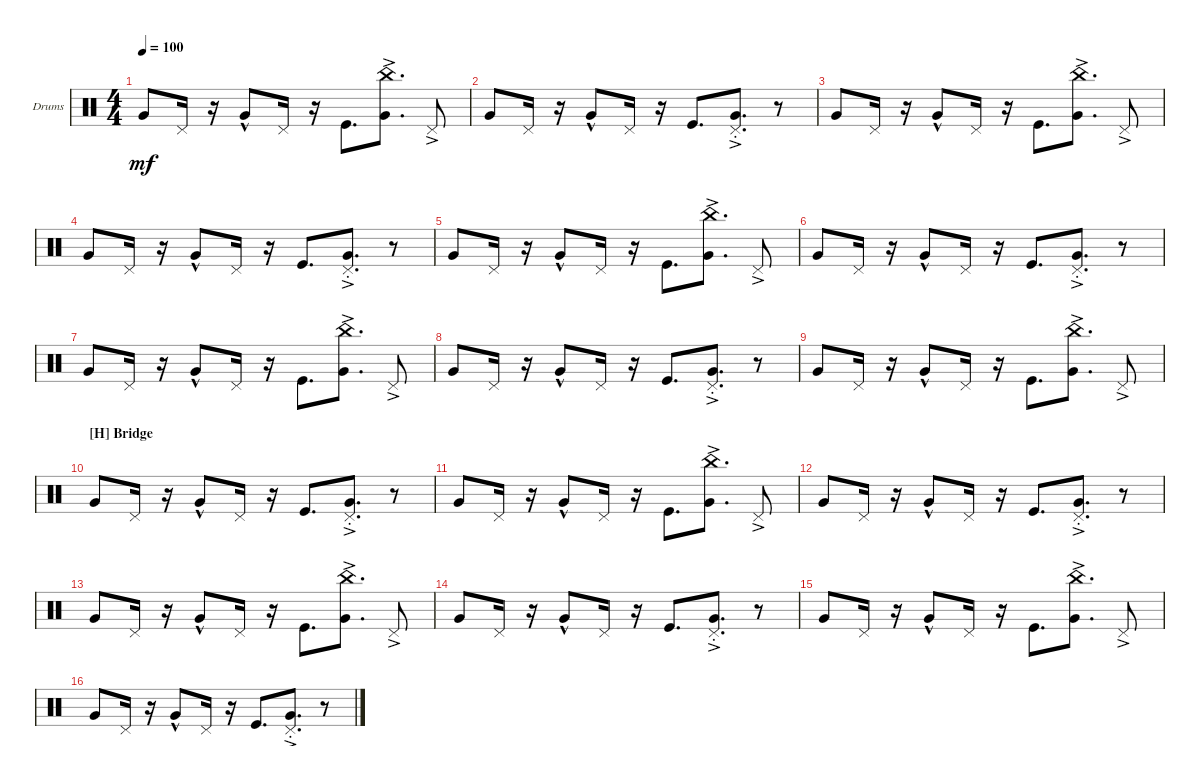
\defaultSystemsLayout 4
\bracketExtendMode groupsimilarinstruments
\firstSystemTrackNameOrientation horizontal
\otherSystemsTrackNameOrientation horizontal
\track ("Drumkit" "Drums") {instrument percussion}
\staff {score}
\articulation defaults
\ts (4 4)
\tempo 100
\clef neutral
\ks c "Very Low Tom (hit)".8{dy mf} "Pedal Hi-Hat (hit)".16
r.16 "Very Low Tom (hit)"{hac}.8 "Pedal Hi-Hat (hit)".16 r.16 "Kick (hit)".8{d} ("China (hit)"{ac} "Very Low Tom (hit)"{ac}).8{d} "Pedal Hi-Hat (hit)"{ac}.8 |
"Very Low Tom (hit)".8 "Pedal Hi-Hat (hit)".16 r.16 "Very Low Tom (hit)"{hac}.8 "Pedal Hi-Hat (hit)".16 r.16 "Kick (hit)".8{d} ("Very Low Tom (hit)"{ac st} "Pedal Hi-Hat (hit)"{ac st}).8{d} r.8 |
"Very Low Tom (hit)".8 "Pedal Hi-Hat (hit)".16 r.16 "Very Low Tom (hit)"{hac}.8 "Pedal Hi-Hat (hit)".16 r.16 "Kick (hit)".8{d} ("China (hit)"{ac} "Very Low Tom (hit)"{ac}).8{d} "Pedal Hi-Hat (hit)"{ac}.8 |
"Very Low Tom (hit)".8 "Pedal Hi-Hat (hit)".16 r.16 "Very Low Tom (hit)"{hac}.8 "Pedal Hi-Hat (hit)".16 r.16 "Kick (hit)".8{d} ("Very Low Tom (hit)"{ac st} "Pedal Hi-Hat (hit)"{ac st}).8{d} r.8 |
"Very Low Tom (hit)".8 "Pedal Hi-Hat (hit)".16 r.16 "Very Low Tom (hit)"{hac}.8 "Pedal Hi-Hat (hit)".16 r.16 "Kick (hit)".8{d} ("China (hit)"{ac} "Very Low Tom (hit)"{ac}).8{d} "Pedal Hi-Hat (hit)"{ac}.8 |
"Very Low Tom (hit)".8 "Pedal Hi-Hat (hit)".16 r.16 "Very Low Tom (hit)"{hac}.8 "Pedal Hi-Hat (hit)".16 r.16 "Kick (hit)".8{d} ("Very Low Tom (hit)"{ac st} "Pedal Hi-Hat (hit)"{ac st}).8{d} r.8 |
"Very Low Tom (hit)".8 "Pedal Hi-Hat (hit)".16 r.16 "Very Low Tom (hit)"{hac}.8 "Pedal Hi-Hat (hit)".16 r.16 "Kick (hit)".8{d} ("China (hit)"{ac} "Very Low Tom (hit)"{ac}).8{d} "Pedal Hi-Hat (hit)"{ac}.8 |
"Very Low Tom (hit)".8 "Pedal Hi-Hat (hit)".16 r.16 "Very Low Tom (hit)"{hac}.8 "Pedal Hi-Hat (hit)".16 r.16 "Kick (hit)".8{d} ("Very Low Tom (hit)"{ac st} "Pedal Hi-Hat (hit)"{ac st}).8{d} r.8 |
"Very Low Tom (hit)".8 "Pedal Hi-Hat (hit)".16 r.16 "Very Low Tom (hit)"{hac}.8 "Pedal Hi-Hat (hit)".16 r.16 "Kick (hit)".8{d} ("China (hit)"{ac} "Very Low Tom (hit)"{ac}).8{d} "Pedal Hi-Hat (hit)"{ac}.8 |
\section ("H" "Bridge")
"Very Low Tom (hit)".8 "Pedal Hi-Hat (hit)".16 r.16 "Very Low Tom (hit)"{hac}.8 "Pedal Hi-Hat (hit)".16 r.16 "Kick (hit)".8{d} ("Very Low Tom (hit)"{ac st} "Pedal Hi-Hat (hit)"{ac st}).8{d} r.8 |
"Very Low Tom (hit)".8 "Pedal Hi-Hat (hit)".16 r.16 "Very Low Tom (hit)"{hac}.8 "Pedal Hi-Hat (hit)".16 r.16 "Kick (hit)".8{d} ("China (hit)"{ac} "Very Low Tom (hit)"{ac}).8{d} "Pedal Hi-Hat (hit)"{ac}.8 |
"Very Low Tom (hit)".8 "Pedal Hi-Hat (hit)".16 r.16 "Very Low Tom (hit)"{hac}.8 "Pedal Hi-Hat (hit)".16 r.16 "Kick (hit)".8{d} ("Very Low Tom (hit)"{ac st} "Pedal Hi-Hat (hit)"{ac st}).8{d} r.8 |
"Very Low Tom (hit)".8 "Pedal Hi-Hat (hit)".16 r.16 "Very Low Tom (hit)"{hac}.8 "Pedal Hi-Hat (hit)".16 r.16 "Kick (hit)".8{d} ("China (hit)"{ac} "Very Low Tom (hit)"{ac}).8{d} "Pedal Hi-Hat (hit)"{ac}.8 |
"Very Low Tom (hit)".8 "Pedal Hi-Hat (hit)".16 r.16 "Very Low Tom (hit)"{hac}.8 "Pedal Hi-Hat (hit)".16 r.16 "Kick (hit)".8{d} ("Very Low Tom (hit)"{ac st} "Pedal Hi-Hat (hit)"{ac st}).8{d} r.8 |
"Very Low Tom (hit)".8 "Pedal Hi-Hat (hit)".16 r.16 "Very Low Tom (hit)"{hac}.8 "Pedal Hi-Hat (hit)".16 r.16 "Kick (hit)".8{d} ("China (hit)"{ac} "Very Low Tom (hit)"{ac}).8{d} "Pedal Hi-Hat (hit)"{ac}.8 |
"Very Low Tom (hit)".8 "Pedal Hi-Hat (hit)".16 r.16 "Very Low Tom (hit)"{hac}.8 "Pedal Hi-Hat (hit)".16 r.16 "Kick (hit)".8{d} ("Very Low Tom (hit)"{ac st} "Pedal Hi-Hat (hit)"{ac st}).8{d} r.8
